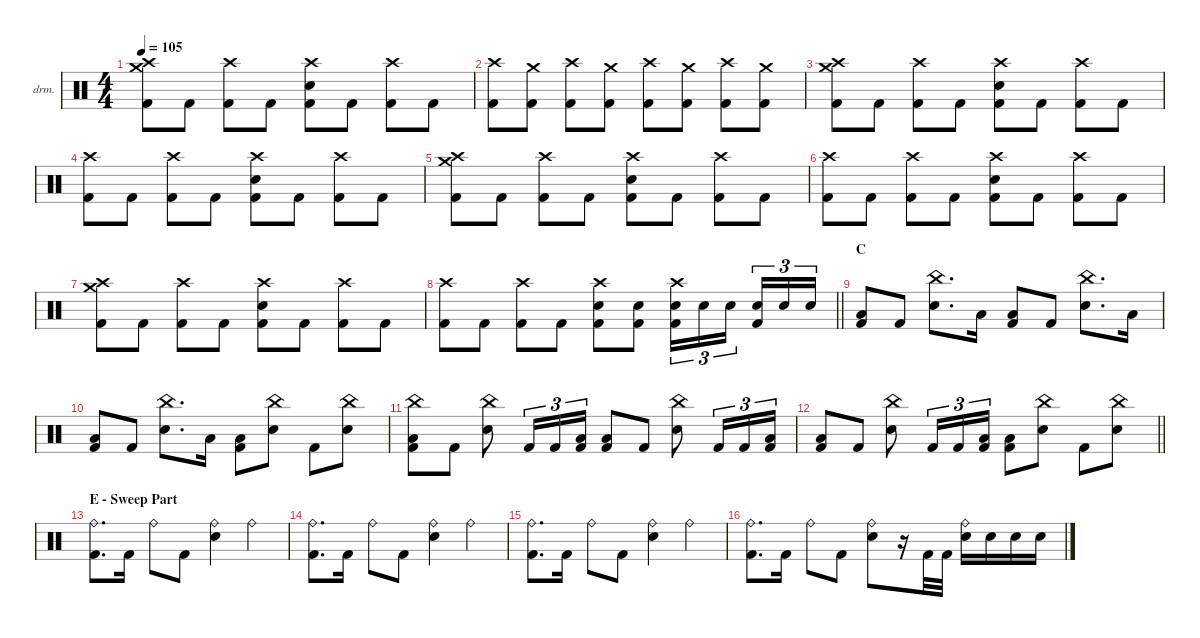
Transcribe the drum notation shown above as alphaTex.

\defaultSystemsLayout 4
\hideDynamics
\bracketExtendMode nobrackets
\firstSystemTrackNameOrientation horizontal
\otherSystemsTrackNameOrientation horizontal
\track ("Percussions" "drm.") {instrument percussion}
\staff {score}
\articulation defaults
\ts (4 4)
\tempo 105
\clef neutral
\ks c
("Crash medium (hit)" "Crash high (hit)" "Kick (hit) 2").8{dy f} "Kick (hit) 2".8 ("Crash high (hit)" "Kick (hit) 2").8 "Kick (hit) 2".8 ("Crash high (hit)" "Snare (hit) 2" "Kick (hit) 2").8 "Kick (hit) 2".8 ("Crash high (hit)" "Kick (hit) 2").8 "Kick (hit) 2".8 |
("Crash high (hit)" "Kick (hit) 2").8 ("Crash medium (hit)" "Kick (hit) 2").8 ("Crash high (hit)" "Kick (hit) 2").8 ("Crash medium (hit)" "Kick (hit) 2").8 ("Crash high (hit)" "Kick (hit) 2").8 ("Crash medium (hit)" "Kick (hit) 2").8 ("Crash high (hit)" "Kick (hit) 2").8 ("Crash medium (hit)" "Kick (hit) 2").8 |
("Crash medium (hit)" "Crash high (hit)" "Kick (hit) 2").8 "Kick (hit) 2".8 ("Crash high (hit)" "Kick (hit) 2").8 "Kick (hit) 2".8 ("Crash high (hit)" "Snare (hit) 2" "Kick (hit) 2").8 "Kick (hit) 2".8 ("Crash high (hit)" "Kick (hit) 2").8 "Kick (hit) 2".8 |
("Crash high (hit)" "Kick (hit) 2").8 "Kick (hit) 2".8 ("Crash high (hit)" "Kick (hit) 2").8 "Kick (hit) 2".8 ("Crash high (hit)" "Snare (hit) 2" "Kick (hit) 2").8 "Kick (hit) 2".8 ("Crash high (hit)" "Kick (hit) 2").8 "Kick (hit) 2".8 |
("Crash medium (hit)" "Crash high (hit)" "Kick (hit) 2").8 "Kick (hit) 2".8 ("Crash high (hit)" "Kick (hit) 2").8 "Kick (hit) 2".8 ("Crash high (hit)" "Snare (hit) 2" "Kick (hit) 2").8 "Kick (hit) 2".8 ("Crash high (hit)" "Kick (hit) 2").8 "Kick (hit) 2".8 |
("Crash high (hit)" "Kick (hit) 2").8 "Kick (hit) 2".8 ("Crash high (hit)" "Kick (hit) 2").8 "Kick (hit) 2".8 ("Crash high (hit)" "Snare (hit) 2" "Kick (hit) 2").8 "Kick (hit) 2".8 ("Crash high (hit)" "Kick (hit) 2").8 "Kick (hit) 2".8 |
("Crash medium (hit)" "Crash high (hit)" "Kick (hit) 2").8 "Kick (hit) 2".8 ("Crash high (hit)" "Kick (hit) 2").8 "Kick (hit) 2".8 ("Crash high (hit)" "Snare (hit) 2" "Kick (hit) 2").8 "Kick (hit) 2".8 ("Crash high (hit)" "Kick (hit) 2").8 "Kick (hit) 2".8 |
\barLineRight lightlight
("Crash high (hit)" "Kick (hit) 2").8 "Kick (hit) 2".8 ("Crash high (hit)" "Kick (hit) 2").8 "Kick (hit) 2".8 ("Crash high (hit)" "Snare (hit) 2" "Kick (hit) 2").8 ("Snare (hit) 2" "Kick (hit) 2").8 ("Crash high (hit)" "Snare (hit) 2" "Kick (hit) 2").16{tu (3 2)} "Snare (hit) 2".16{tu (3 2)} "Snare (hit) 2".16{tu (3 2)} ("Snare (hit) 2" "Kick (hit) 2").16{tu (3 2)} "Snare (hit) 2".16{tu (3 2)} "Snare (hit) 2".16{tu (3 2)} |
\section ("" "C")
("Low Tom (hit)" "Kick (hit) 2").8 "Kick (hit) 2".8 ("China (hit)" "Snare (hit) 2").8{d} "Low Tom (hit)".16 ("Low Tom (hit)" "Kick (hit) 2").8 "Kick (hit) 2".8 ("China (hit)" "Snare (hit) 2").8{d} "Low Tom (hit)".16 |
("Low Tom (hit)" "Kick (hit) 2").8 "Kick (hit) 2".8 ("China (hit)" "Snare (hit) 2").8{d} "Low Tom (hit)".16 ("Low Tom (hit)" "Kick (hit) 2").8 ("China (hit)" "Snare (hit) 2").8 "Kick (hit) 2".8 ("China (hit)" "Snare (hit) 2").8 |
("China (hit)" "Low Tom (hit)" "Kick (hit) 2").8 "Kick (hit) 2".8 ("China (hit)" "Snare (hit) 2").8 "Kick (hit) 2".16{tu (3 2) dy fff} "Kick (hit) 2".16{tu (3 2)} ("Low Tom (hit)" "Kick (hit) 2").16{tu (3 2) dy f} ("Low Tom (hit)" "Kick (hit) 2").8 "Kick (hit) 2".8 ("China (hit)" "Snare (hit) 2").8 "Kick (hit) 2".16{tu (3 2) dy fff} "Kick (hit) 2".16{tu (3 2)} ("Low Tom (hit)" "Kick (hit) 2").16{tu (3 2) dy f} |
\barLineRight lightlight
("Low Tom (hit)" "Kick (hit) 2").8 "Kick (hit) 2".8{dy fff} ("China (hit)" "Snare (hit) 2").8{dy f} "Kick (hit) 2".16{tu (3 2) dy fff} "Kick (hit) 2".16{tu (3 2)} ("Low Tom (hit)" "Kick (hit) 2").16{tu (3 2) dy f} ("Low Tom (hit)" "Kick (hit) 2").8 ("China (hit)" "Snare (hit) 2").8 "Kick (hit) 2".8 ("China (hit)" "Snare (hit) 2").8 |
\section ("" "E - Sweep Part")
("Ride (bell)" "Kick (hit) 2").8{d dy fff} "Kick (hit) 2".16 "Ride (bell)".8 "Kick (hit) 2".8 ("Ride (bell)" "Snare (hit) 2").4 "Ride (bell)".4 |
("Ride (bell)" "Kick (hit) 2").8{d} "Kick (hit) 2".16 "Ride (bell)".8 "Kick (hit) 2".8 ("Ride (bell)" "Snare (hit) 2").4 "Ride (bell)".4 |
("Ride (bell)" "Kick (hit) 2").8{d} "Kick (hit) 2".16 "Ride (bell)".8 "Kick (hit) 2".8 ("Ride (bell)" "Snare (hit) 2").4 "Ride (bell)".4 |
("Ride (bell)" "Kick (hit) 2").8{d} "Kick (hit) 2".16 "Ride (bell)".8 "Kick (hit) 2".8 ("Ride (bell)" "Snare (hit) 2").8 r.16 "Kick (hit) 2".32 "Kick (hit) 2".32 ("Ride (bell)" "Snare (hit) 2").16 "Snare (hit) 2".16 "Snare (hit) 2".16 "Snare (hit) 2".16
